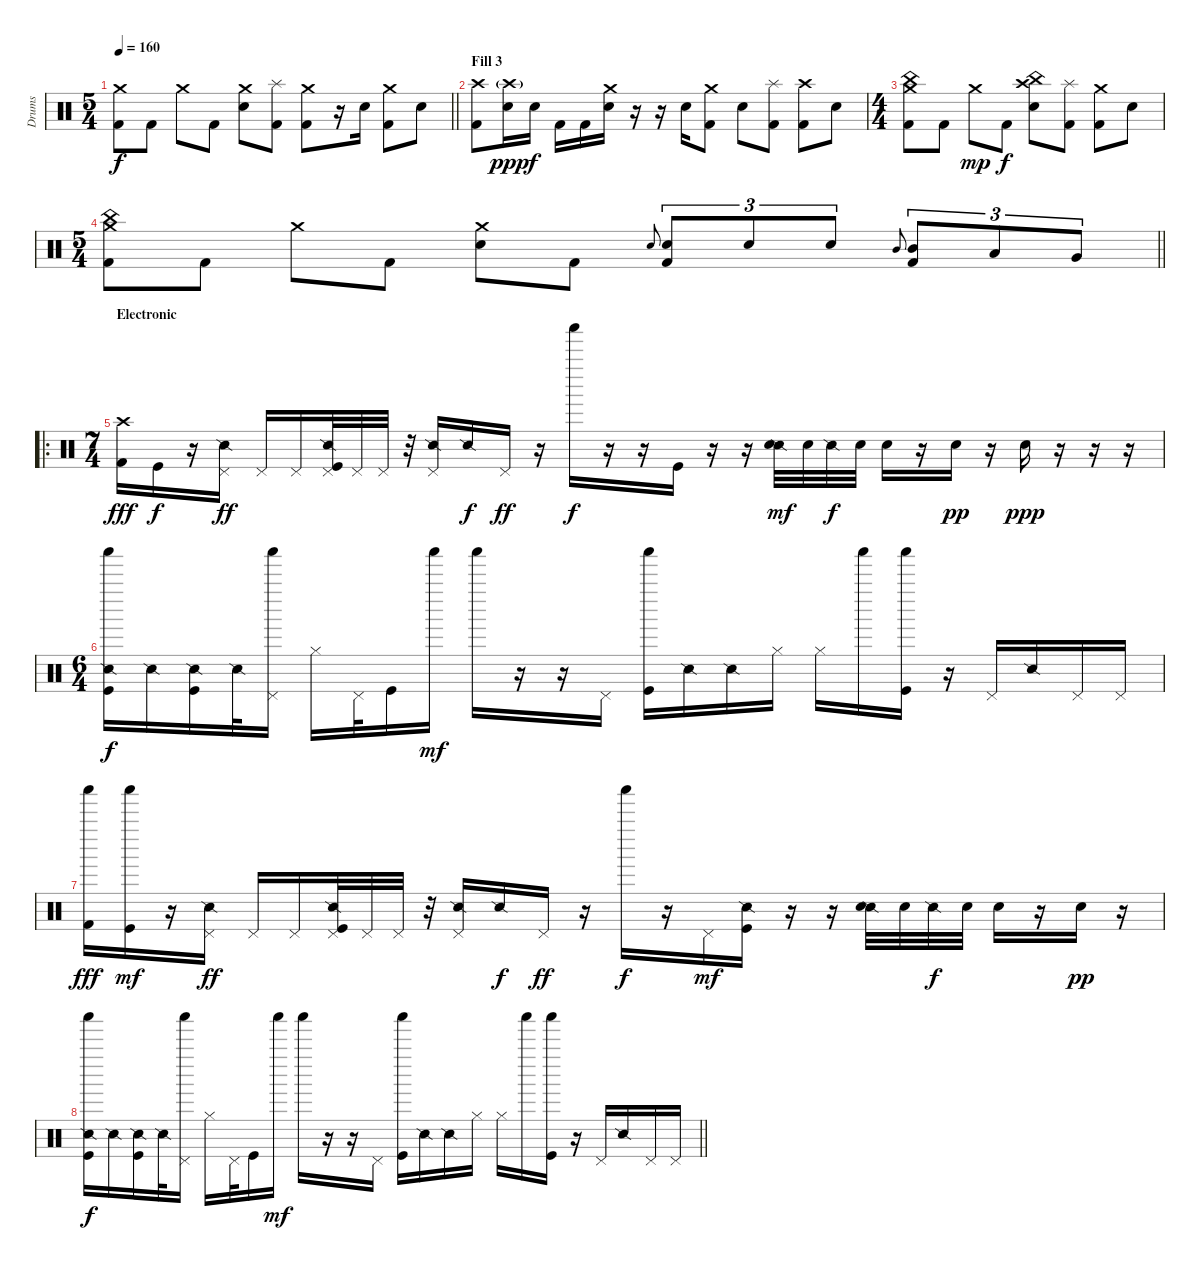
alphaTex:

\track ("Drums" "Drums") {instrument percussion}
\staff {score}
\articulation defaults
\ts (5 4)
\tempo 160
\clef neutral
\barLineRight lightlight
\ks c
("Crash medium (hit)" "Kick (hit) 2").8{dy f} "Kick (hit) 2".8 "Crash medium (hit)".8 "Kick (hit) 2".8 ("Crash medium (hit)" "Electric Snare (hit)").8 ("Splash (hit)" "Kick (hit) 2").8 ("Crash medium (hit)" "Kick (hit) 2").8 r.16 "Electric Snare (hit)".16 ("Crash medium (hit)" "Kick (hit) 2").8 "Electric Snare (hit)".8 |
\section ("" "Fill 3")
("Crash high (hit)" "Kick (hit) 2").8 ("Crash high (hit)"{g} "Electric Snare (hit)").16{dy ppp} "Electric Snare (hit)".16{dy f} "Kick (hit) 2".16 "Kick (hit) 2".16 ("Crash medium (hit)" "Electric Snare (hit)").16 r.16 r.16 "Electric Snare (hit)".16 ("Crash medium (hit)" "Kick (hit) 2").8 "Electric Snare (hit)".8 ("Splash (hit)" "Kick (hit) 2").8 ("Crash high (hit)" "Kick (hit) 2").8 "Electric Snare (hit)".8 |
\ts (4 4)
("Crash medium (hit)" "China (hit)" "Kick (hit) 2").8 "Kick (hit) 2".8 "Crash medium (hit)".8{dy mp} "Kick (hit) 2".8{dy f} ("Crash high (hit)" "China (hit)" "Electric Snare (hit)").8 ("Splash (hit)" "Kick (hit) 2").8 ("Crash medium (hit)" "Kick (hit) 2").8 "Electric Snare (hit)".8 |
\ts (5 4)
\barLineRight lightlight
("Crash medium (hit)" "China (hit)" "Kick (hit) 2").8 "Kick (hit) 2".8 "Crash medium (hit)".8 "Kick (hit) 2".8 ("Crash medium (hit)" "Electric Snare (hit)").8 "Kick (hit) 2".8 "Electric Snare (hit)".8{gr onbeat} ("Electric Snare (hit)" "Kick (hit) 2").8{tu (3 2)} "Electric Snare (hit)".8{tu (3 2)} "Electric Snare (hit)".8{tu (3 2)} "Mid Tom (hit)".8{gr onbeat} ("Mid Tom (hit)" "Kick (hit) 2").8{tu (3 2)} "Low Tom (hit)".8{tu (3 2)} "Very Low Tom (hit)".8{tu (3 2)} |
\ro
\ts (7 4)
\section ("" "Electronic")
("Crash high (hit)" "Kick (hit) 2").16{dy fff} "Kick (hit)".16{dy f} r.16 ("Pedal Hi-Hat (hit)" "Snare (side stick) 2").16{dy ff} "Pedal Hi-Hat (hit)".16 "Pedal Hi-Hat (hit)".16 ("Pedal Hi-Hat (hit)" "Snare (side stick) 2" "Kick (hit)").32 "Pedal Hi-Hat (hit)".32 "Pedal Hi-Hat (hit)".32 r.32 ("Pedal Hi-Hat (hit)" "Snare (side stick) 2").16 "Snare (side stick) 2".16{dy f} "Pedal Hi-Hat (hit)".16{dy ff} r.16 "Shaker (hit)".16{dy f} r.16 r.16 "Kick (hit)".16 r.16 r.16 ("Snare (side stick) 2" "Snare (hit) 2").32{dy mf} "Snare (hit) 2".32 "Snare (side stick) 2".32{dy f} "Hand Clap (hit)".32 "Hand Clap (hit)".16 r.16 "Hand Clap (hit)".16{dy pp} r.16 "Hand Clap (hit)".16{dy ppp} r.16 r.16 r.16 |
\ts (6 4)
("Snare (side stick) 2" "Shaker (hit)" "Kick (hit)").16{dy f} "Snare (side stick) 2".16 ("Snare (side stick) 2" "Kick (hit)").16 "Snare (side stick) 2".32 ("Pedal Hi-Hat (hit)" "Shaker (hit)").16 "Hi-Hat (closed)".16 "Pedal Hi-Hat (hit)".32 "Kick (hit)".16 "Shaker (hit)".16{dy mf} "Shaker (hit)".16 r.16 r.16 "Pedal Hi-Hat (hit)".16 ("Shaker (hit)" "Kick (hit)").16 "Snare (side stick) 2".16 "Snare (side stick) 2".16 "Hi-Hat (closed)".16 "Hi-Hat (closed)".16 "Shaker (hit)".16 ("Shaker (hit)" "Kick (hit)").16 r.16 "Pedal Hi-Hat (hit)".16 "Snare (side stick) 2".16 "Pedal Hi-Hat (hit)".16 "Pedal Hi-Hat (hit)".16 |
("Shaker (hit)" "Kick (hit) 2").16{dy fff} ("Shaker (hit)" "Kick (hit)").16{dy mf} r.16 ("Pedal Hi-Hat (hit)" "Snare (side stick) 2").16{dy ff} "Pedal Hi-Hat (hit)".16 "Pedal Hi-Hat (hit)".16 ("Pedal Hi-Hat (hit)" "Snare (side stick) 2" "Kick (hit)").32 "Pedal Hi-Hat (hit)".32 "Pedal Hi-Hat (hit)".32 r.32 ("Pedal Hi-Hat (hit)" "Snare (side stick) 2").16 "Snare (side stick) 2".16{dy f} "Pedal Hi-Hat (hit)".16{dy ff} r.16 "Shaker (hit)".16{dy f} r.16 "Pedal Hi-Hat (hit)".16{dy mf} ("Snare (side stick) 2" "Kick (hit)").16 r.16 r.16 ("Snare (side stick) 2" "Snare (hit) 2").32 "Snare (hit) 2".32 "Snare (side stick) 2".32{dy f} "Hand Clap (hit)".32 "Hand Clap (hit)".16 r.16 "Hand Clap (hit)".16{dy pp} r.16 |
\barLineRight lightlight
("Snare (side stick) 2" "Shaker (hit)" "Kick (hit)").16{dy f} "Snare (side stick) 2".16 ("Snare (side stick) 2" "Kick (hit)").16 "Snare (side stick) 2".32 ("Pedal Hi-Hat (hit)" "Shaker (hit)").16 "Hi-Hat (closed)".16 "Pedal Hi-Hat (hit)".32 "Kick (hit)".16 "Shaker (hit)".16{dy mf} "Shaker (hit)".16 r.16 r.16 "Pedal Hi-Hat (hit)".16 ("Shaker (hit)" "Kick (hit)").16 "Snare (side stick) 2".16 "Snare (side stick) 2".16 "Hi-Hat (closed)".16 "Hi-Hat (closed)".16 "Shaker (hit)".16 ("Shaker (hit)" "Kick (hit)").16 r.16 "Pedal Hi-Hat (hit)".16 "Snare (side stick) 2".16 "Pedal Hi-Hat (hit)".16 "Pedal Hi-Hat (hit)".16
